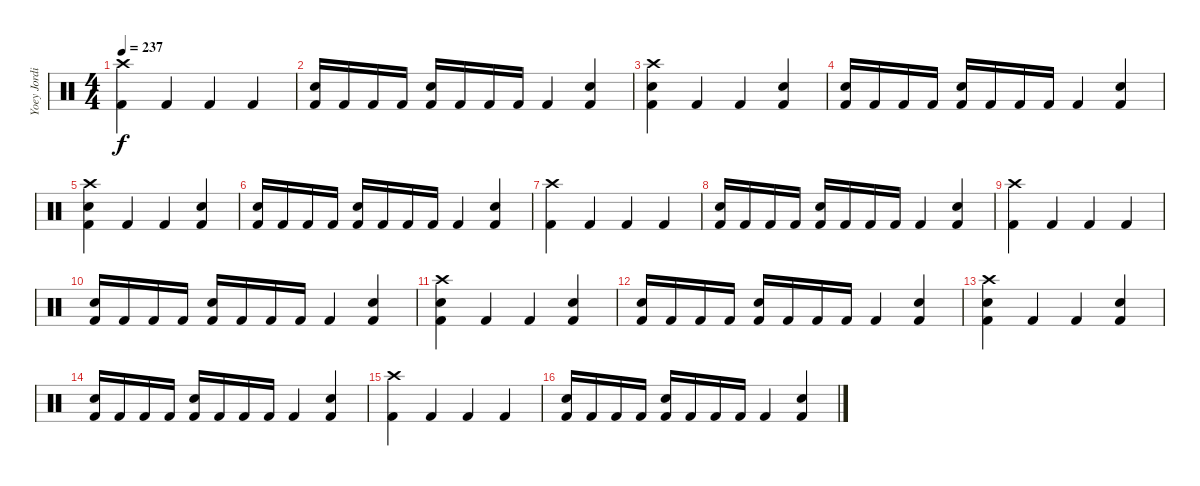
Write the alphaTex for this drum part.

\track ("Yoey Jordison" "Yoey Jordi") {instrument percussion}
\staff {score}
\articulation defaults
\ts (4 4)
\tempo 237
\clef neutral
\ks c
("Crash high (hit)" "Kick (hit) 2").4{dy f} "Kick (hit) 2".4 "Kick (hit) 2".4 "Kick (hit) 2".4 |
("Kick (hit) 2" "Snare (hit) 2").16 "Kick (hit) 2".16 "Kick (hit) 2".16 "Kick (hit) 2".16 ("Kick (hit) 2" "Snare (hit) 2").16 "Kick (hit) 2".16 "Kick (hit) 2".16 "Kick (hit) 2".16 "Kick (hit) 2".4 ("Kick (hit) 2" "Snare (hit) 2").4 |
("Crash high (hit)" "Kick (hit) 2" "Snare (hit) 2").4 "Kick (hit) 2".4 "Kick (hit) 2".4 ("Kick (hit) 2" "Snare (hit) 2").4 |
("Kick (hit) 2" "Snare (hit) 2").16 "Kick (hit) 2".16 "Kick (hit) 2".16 "Kick (hit) 2".16 ("Kick (hit) 2" "Snare (hit) 2").16 "Kick (hit) 2".16 "Kick (hit) 2".16 "Kick (hit) 2".16 "Kick (hit) 2".4 ("Kick (hit) 2" "Snare (hit) 2").4 |
("Crash high (hit)" "Kick (hit) 2" "Snare (hit) 2").4 "Kick (hit) 2".4 "Kick (hit) 2".4 ("Kick (hit) 2" "Snare (hit) 2").4 |
("Kick (hit) 2" "Snare (hit) 2").16 "Kick (hit) 2".16 "Kick (hit) 2".16 "Kick (hit) 2".16 ("Kick (hit) 2" "Snare (hit) 2").16 "Kick (hit) 2".16 "Kick (hit) 2".16 "Kick (hit) 2".16 "Kick (hit) 2".4 ("Kick (hit) 2" "Snare (hit) 2").4 |
("Crash high (hit)" "Kick (hit) 2").4 "Kick (hit) 2".4 "Kick (hit) 2".4 "Kick (hit) 2".4 |
("Kick (hit) 2" "Snare (hit) 2").16 "Kick (hit) 2".16 "Kick (hit) 2".16 "Kick (hit) 2".16 ("Kick (hit) 2" "Snare (hit) 2").16 "Kick (hit) 2".16 "Kick (hit) 2".16 "Kick (hit) 2".16 "Kick (hit) 2".4 ("Kick (hit) 2" "Snare (hit) 2").4 |
("Crash high (hit)" "Kick (hit) 2").4 "Kick (hit) 2".4 "Kick (hit) 2".4 "Kick (hit) 2".4 |
("Kick (hit) 2" "Snare (hit) 2").16 "Kick (hit) 2".16 "Kick (hit) 2".16 "Kick (hit) 2".16 ("Kick (hit) 2" "Snare (hit) 2").16 "Kick (hit) 2".16 "Kick (hit) 2".16 "Kick (hit) 2".16 "Kick (hit) 2".4 ("Kick (hit) 2" "Snare (hit) 2").4 |
("Crash high (hit)" "Kick (hit) 2" "Snare (hit) 2").4 "Kick (hit) 2".4 "Kick (hit) 2".4 ("Kick (hit) 2" "Snare (hit) 2").4 |
("Kick (hit) 2" "Snare (hit) 2").16 "Kick (hit) 2".16 "Kick (hit) 2".16 "Kick (hit) 2".16 ("Kick (hit) 2" "Snare (hit) 2").16 "Kick (hit) 2".16 "Kick (hit) 2".16 "Kick (hit) 2".16 "Kick (hit) 2".4 ("Kick (hit) 2" "Snare (hit) 2").4 |
("Crash high (hit)" "Kick (hit) 2" "Snare (hit) 2").4 "Kick (hit) 2".4 "Kick (hit) 2".4 ("Kick (hit) 2" "Snare (hit) 2").4 |
("Kick (hit) 2" "Snare (hit) 2").16 "Kick (hit) 2".16 "Kick (hit) 2".16 "Kick (hit) 2".16 ("Kick (hit) 2" "Snare (hit) 2").16 "Kick (hit) 2".16 "Kick (hit) 2".16 "Kick (hit) 2".16 "Kick (hit) 2".4 ("Kick (hit) 2" "Snare (hit) 2").4 |
("Crash high (hit)" "Kick (hit) 2").4 "Kick (hit) 2".4 "Kick (hit) 2".4 "Kick (hit) 2".4 |
("Kick (hit) 2" "Snare (hit) 2").16 "Kick (hit) 2".16 "Kick (hit) 2".16 "Kick (hit) 2".16 ("Kick (hit) 2" "Snare (hit) 2").16 "Kick (hit) 2".16 "Kick (hit) 2".16 "Kick (hit) 2".16 "Kick (hit) 2".4 ("Kick (hit) 2" "Snare (hit) 2").4
